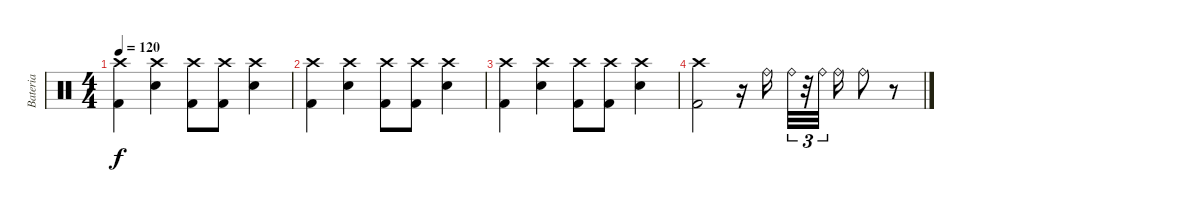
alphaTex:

\track ("Bateria" "Bateria") {instrument percussion}
\staff {score}
\articulation defaults
\ts (4 4)
\tempo 120
\clef neutral
\ks c
("Kick (hit) 2" "Crash high (hit)").4{dy f} ("Electric Snare (hit)" "Crash high (hit)").4 ("Kick (hit) 2" "Crash high (hit)").8 ("Kick (hit) 2" "Crash high (hit)").8 ("Electric Snare (hit)" "Crash high (hit)").4 |
("Kick (hit) 2" "Crash high (hit)").4 ("Electric Snare (hit)" "Crash high (hit)").4 ("Kick (hit) 2" "Crash high (hit)").8 ("Kick (hit) 2" "Crash high (hit)").8 ("Electric Snare (hit)" "Crash high (hit)").4 |
("Kick (hit) 2" "Crash high (hit)").4 ("Electric Snare (hit)" "Crash high (hit)").4 ("Kick (hit) 2" "Crash high (hit)").8 ("Kick (hit) 2" "Crash high (hit)").8 ("Electric Snare (hit)" "Crash high (hit)").4 |
("Kick (hit) 2" "Crash high (hit)").2 r.16 "Ride (bell)".16{volume 9 balance 0} "Ride (bell)".32{tu (3 2)} r.32{tu (3 2)} "Ride (bell)".32{tu (3 2)} "Ride (bell)".16 "Ride (bell)".8 r.8
